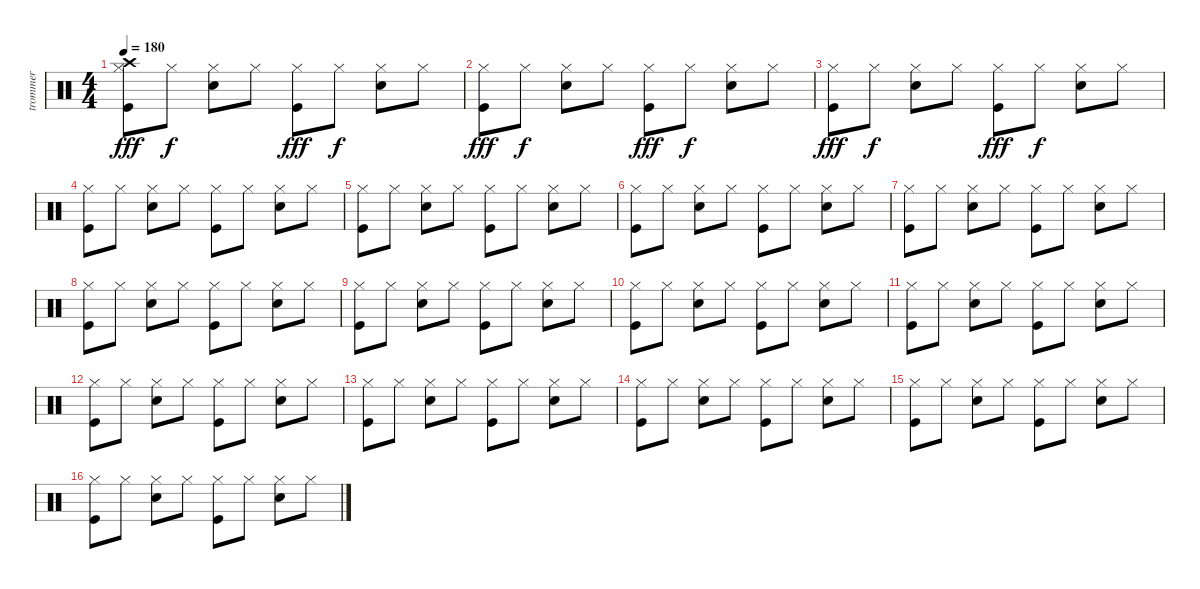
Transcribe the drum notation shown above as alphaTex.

\track ("trommer" "trommer") {instrument percussion}
\staff {score}
\articulation defaults
\ts (4 4)
\tempo 180
\clef neutral
\ks c
("Crash high (hit)" "Kick (hit)" "Hi-Hat (closed)").8{dy fff} "Hi-Hat (closed)".8{dy f} ("Electric Snare (hit)" "Hi-Hat (closed)").8 "Hi-Hat (closed)".8 ("Kick (hit)" "Hi-Hat (closed)").8{dy fff} "Hi-Hat (closed)".8{dy f} ("Electric Snare (hit)" "Hi-Hat (closed)").8 "Hi-Hat (closed)".8 |
("Kick (hit)" "Hi-Hat (closed)").8{dy fff} "Hi-Hat (closed)".8{dy f} ("Electric Snare (hit)" "Hi-Hat (closed)").8 "Hi-Hat (closed)".8 ("Kick (hit)" "Hi-Hat (closed)").8{dy fff} "Hi-Hat (closed)".8{dy f} ("Electric Snare (hit)" "Hi-Hat (closed)").8 "Hi-Hat (closed)".8 |
("Kick (hit)" "Hi-Hat (closed)").8{dy fff} "Hi-Hat (closed)".8{dy f} ("Electric Snare (hit)" "Hi-Hat (closed)").8 "Hi-Hat (closed)".8 ("Kick (hit)" "Hi-Hat (closed)").8{dy fff} "Hi-Hat (closed)".8{dy f} ("Electric Snare (hit)" "Hi-Hat (closed)").8 "Hi-Hat (closed)".8 |
("Kick (hit)" "Hi-Hat (closed)").8 "Hi-Hat (closed)".8 ("Electric Snare (hit)" "Hi-Hat (closed)").8 "Hi-Hat (closed)".8 ("Kick (hit)" "Hi-Hat (closed)").8 "Hi-Hat (closed)".8 ("Electric Snare (hit)" "Hi-Hat (closed)").8 "Hi-Hat (closed)".8 |
("Kick (hit)" "Hi-Hat (closed)").8 "Hi-Hat (closed)".8 ("Electric Snare (hit)" "Hi-Hat (closed)").8 "Hi-Hat (closed)".8 ("Kick (hit)" "Hi-Hat (closed)").8 "Hi-Hat (closed)".8 ("Electric Snare (hit)" "Hi-Hat (closed)").8 "Hi-Hat (closed)".8 |
("Kick (hit)" "Hi-Hat (closed)").8 "Hi-Hat (closed)".8 ("Electric Snare (hit)" "Hi-Hat (closed)").8 "Hi-Hat (closed)".8 ("Kick (hit)" "Hi-Hat (closed)").8 "Hi-Hat (closed)".8 ("Electric Snare (hit)" "Hi-Hat (closed)").8 "Hi-Hat (closed)".8 |
("Kick (hit)" "Hi-Hat (closed)").8 "Hi-Hat (closed)".8 ("Electric Snare (hit)" "Hi-Hat (closed)").8 "Hi-Hat (closed)".8 ("Kick (hit)" "Hi-Hat (closed)").8 "Hi-Hat (closed)".8 ("Electric Snare (hit)" "Hi-Hat (closed)").8 "Hi-Hat (closed)".8 |
("Kick (hit)" "Hi-Hat (closed)").8 "Hi-Hat (closed)".8 ("Electric Snare (hit)" "Hi-Hat (closed)").8 "Hi-Hat (closed)".8 ("Kick (hit)" "Hi-Hat (closed)").8 "Hi-Hat (closed)".8 ("Electric Snare (hit)" "Hi-Hat (closed)").8 "Hi-Hat (closed)".8 |
("Kick (hit)" "Hi-Hat (closed)").8 "Hi-Hat (closed)".8 ("Electric Snare (hit)" "Hi-Hat (closed)").8 "Hi-Hat (closed)".8 ("Kick (hit)" "Hi-Hat (closed)").8 "Hi-Hat (closed)".8 ("Electric Snare (hit)" "Hi-Hat (closed)").8 "Hi-Hat (closed)".8 |
("Kick (hit)" "Hi-Hat (closed)").8 "Hi-Hat (closed)".8 ("Electric Snare (hit)" "Hi-Hat (closed)").8 "Hi-Hat (closed)".8 ("Kick (hit)" "Hi-Hat (closed)").8 "Hi-Hat (closed)".8 ("Electric Snare (hit)" "Hi-Hat (closed)").8 "Hi-Hat (closed)".8 |
("Kick (hit)" "Hi-Hat (closed)").8 "Hi-Hat (closed)".8 ("Electric Snare (hit)" "Hi-Hat (closed)").8 "Hi-Hat (closed)".8 ("Kick (hit)" "Hi-Hat (closed)").8 "Hi-Hat (closed)".8 ("Electric Snare (hit)" "Hi-Hat (closed)").8 "Hi-Hat (closed)".8 |
("Kick (hit)" "Hi-Hat (closed)").8 "Hi-Hat (closed)".8 ("Electric Snare (hit)" "Hi-Hat (closed)").8 "Hi-Hat (closed)".8 ("Kick (hit)" "Hi-Hat (closed)").8 "Hi-Hat (closed)".8 ("Electric Snare (hit)" "Hi-Hat (closed)").8 "Hi-Hat (closed)".8 |
("Kick (hit)" "Hi-Hat (closed)").8 "Hi-Hat (closed)".8 ("Electric Snare (hit)" "Hi-Hat (closed)").8 "Hi-Hat (closed)".8 ("Kick (hit)" "Hi-Hat (closed)").8 "Hi-Hat (closed)".8 ("Electric Snare (hit)" "Hi-Hat (closed)").8 "Hi-Hat (closed)".8 |
("Kick (hit)" "Hi-Hat (closed)").8 "Hi-Hat (closed)".8 ("Electric Snare (hit)" "Hi-Hat (closed)").8 "Hi-Hat (closed)".8 ("Kick (hit)" "Hi-Hat (closed)").8 "Hi-Hat (closed)".8 ("Electric Snare (hit)" "Hi-Hat (closed)").8 "Hi-Hat (closed)".8 |
("Kick (hit)" "Hi-Hat (closed)").8 "Hi-Hat (closed)".8 ("Electric Snare (hit)" "Hi-Hat (closed)").8 "Hi-Hat (closed)".8 ("Kick (hit)" "Hi-Hat (closed)").8 "Hi-Hat (closed)".8 ("Electric Snare (hit)" "Hi-Hat (closed)").8 "Hi-Hat (closed)".8 |
("Kick (hit)" "Hi-Hat (closed)").8 "Hi-Hat (closed)".8 ("Electric Snare (hit)" "Hi-Hat (closed)").8 "Hi-Hat (closed)".8 ("Kick (hit)" "Hi-Hat (closed)").8 "Hi-Hat (closed)".8 ("Electric Snare (hit)" "Hi-Hat (closed)").8 "Hi-Hat (closed)".8
